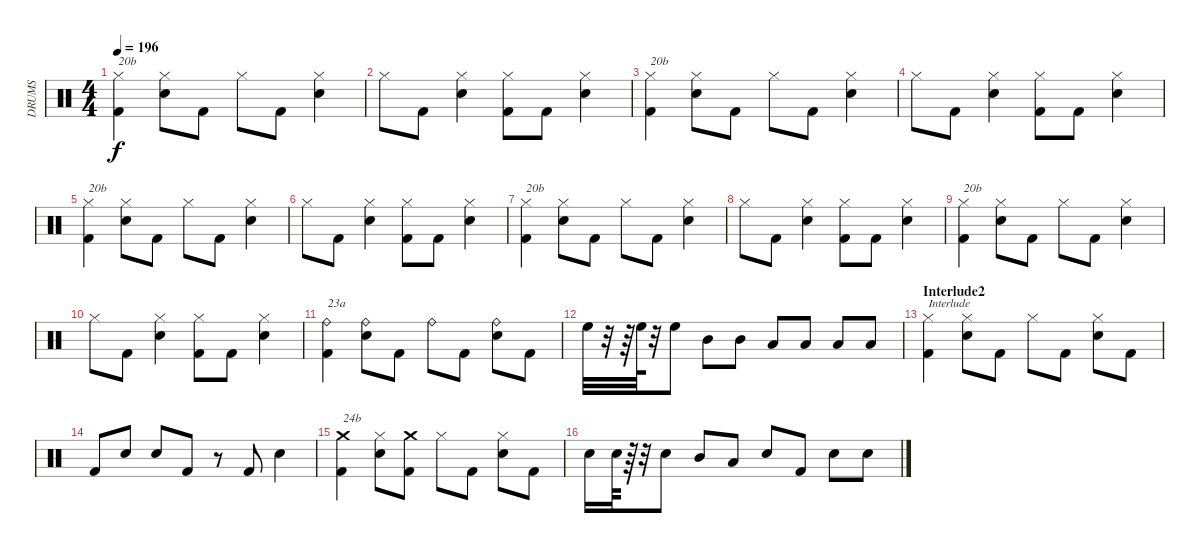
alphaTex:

\track ("DRUMS" "DRUMS") {instrument percussion}
\staff {score}
\articulation defaults
\ts (4 4)
\tempo 196
\clef neutral
\ks c
("Hi-Hat (closed)" "Kick (hit) 2").4{txt "20b" dy f} ("Hi-Hat (closed)" "Snare (hit) 2").8 "Kick (hit) 2".8 "Hi-Hat (closed)".8 "Kick (hit) 2".8 ("Hi-Hat (closed)" "Snare (hit) 2").4 |
"Hi-Hat (closed)".8 "Kick (hit) 2".8 ("Hi-Hat (closed)" "Snare (hit) 2").4 ("Hi-Hat (closed)" "Kick (hit) 2").8 "Kick (hit) 2".8 ("Hi-Hat (closed)" "Snare (hit) 2").4 |
("Hi-Hat (closed)" "Kick (hit) 2").4{txt "20b"} ("Hi-Hat (closed)" "Snare (hit) 2").8 "Kick (hit) 2".8 "Hi-Hat (closed)".8 "Kick (hit) 2".8 ("Hi-Hat (closed)" "Snare (hit) 2").4 |
"Hi-Hat (closed)".8 "Kick (hit) 2".8 ("Hi-Hat (closed)" "Snare (hit) 2").4 ("Hi-Hat (closed)" "Kick (hit) 2").8 "Kick (hit) 2".8 ("Hi-Hat (closed)" "Snare (hit) 2").4 |
("Hi-Hat (closed)" "Kick (hit) 2").4{txt "20b"} ("Hi-Hat (closed)" "Snare (hit) 2").8 "Kick (hit) 2".8 "Hi-Hat (closed)".8 "Kick (hit) 2".8 ("Hi-Hat (closed)" "Snare (hit) 2").4 |
"Hi-Hat (closed)".8 "Kick (hit) 2".8 ("Hi-Hat (closed)" "Snare (hit) 2").4 ("Hi-Hat (closed)" "Kick (hit) 2").8 "Kick (hit) 2".8 ("Hi-Hat (closed)" "Snare (hit) 2").4 |
("Hi-Hat (closed)" "Kick (hit) 2").4{txt "20b"} ("Hi-Hat (closed)" "Snare (hit) 2").8 "Kick (hit) 2".8 "Hi-Hat (closed)".8 "Kick (hit) 2".8 ("Hi-Hat (closed)" "Snare (hit) 2").4 |
"Hi-Hat (closed)".8 "Kick (hit) 2".8 ("Hi-Hat (closed)" "Snare (hit) 2").4 ("Hi-Hat (closed)" "Kick (hit) 2").8 "Kick (hit) 2".8 ("Hi-Hat (closed)" "Snare (hit) 2").4 |
("Hi-Hat (closed)" "Kick (hit) 2").4{txt "20b"} ("Hi-Hat (closed)" "Snare (hit) 2").8 "Kick (hit) 2".8 "Hi-Hat (closed)".8 "Kick (hit) 2".8 ("Hi-Hat (closed)" "Snare (hit) 2").4 |
"Hi-Hat (closed)".8 "Kick (hit) 2".8 ("Hi-Hat (closed)" "Snare (hit) 2").4 ("Hi-Hat (closed)" "Kick (hit) 2").8 "Kick (hit) 2".8 ("Hi-Hat (closed)" "Snare (hit) 2").4 |
("Ride (bell)" "Kick (hit) 2").4{txt "23a"} ("Ride (bell)" "Snare (hit) 2").8 "Kick (hit) 2".8 "Ride (bell)".8 "Kick (hit) 2".8 ("Ride (bell)" "Snare (hit) 2").8 "Kick (hit) 2".8 |
"High Floor Tom (hit)".32 r.32 r.64 "High Floor Tom (hit)".64 r.32 "High Floor Tom (hit)".8 "Mid Tom (hit)".8 "Mid Tom (hit)".8 "Low Tom (hit)".8 "Low Tom (hit)".8 "Low Floor Tom (hit)".8 "Low Floor Tom (hit)".8 |
\section ("" "Interlude2")
("Hi-Hat (closed)" "Kick (hit) 2").4{txt "Interlude"} ("Hi-Hat (closed)" "Snare (hit) 2").8 "Kick (hit) 2".8 "Hi-Hat (closed)".8 "Kick (hit) 2".8 ("Hi-Hat (closed)" "Snare (hit) 2").8 "Kick (hit) 2".8 |
"Kick (hit) 2".8 "Snare (hit) 2".8 "Snare (hit) 2".8 "Kick (hit) 2".8 r.8 "Kick (hit) 2".8 "Snare (hit) 2".4 |
("Crash medium (hit)" "Kick (hit) 2").4{txt "24b"} ("Hi-Hat (closed)" "Snare (hit) 2").8 ("Crash medium (hit)" "Kick (hit) 2").8 "Hi-Hat (closed)".8 "Kick (hit) 2".8 ("Hi-Hat (closed)" "Snare (hit) 2").8 "Kick (hit) 2".8 |
"Snare (hit) 2".16 "Snare (hit) 2".64 r.64 r.32 "Snare (hit) 2".8 "Mid Tom (hit)".8 "Low Floor Tom (hit)".8 "Snare (hit) 2".8 "Kick (hit) 2".8 "Snare (hit) 2".8 "Snare (hit) 2".8
